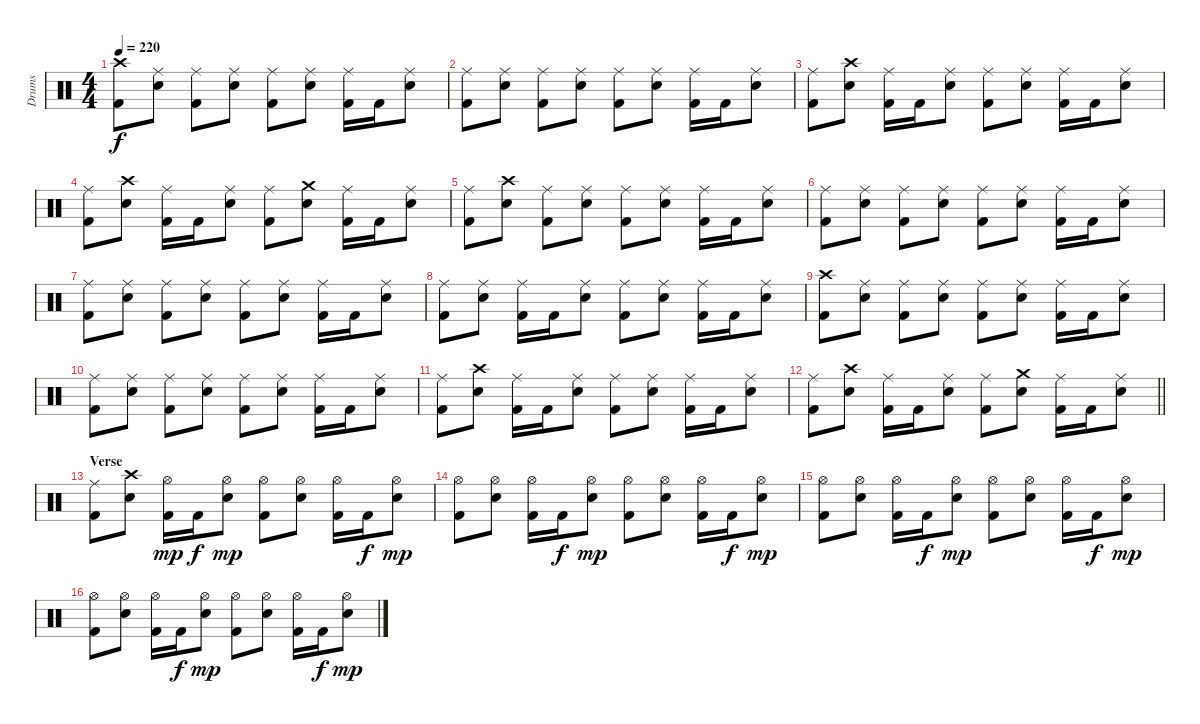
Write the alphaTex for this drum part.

\track ("Drums" "Drums") {instrument percussion}
\staff {score}
\articulation defaults
\ts (4 4)
\tempo 220
\clef neutral
\ks c
("Crash high (hit)" "Kick (hit) 2").8{dy f} ("Ride (middle)" "Snare (hit) 2").8 ("Ride (middle)" "Kick (hit) 2").8 ("Ride (middle)" "Snare (hit) 2").8 ("Ride (middle)" "Kick (hit) 2").8 ("Ride (middle)" "Snare (hit) 2").8 ("Ride (middle)" "Kick (hit) 2").16 "Kick (hit) 2".16 ("Ride (middle)" "Snare (hit) 2").8 |
("Ride (middle)" "Kick (hit) 2").8 ("Ride (middle)" "Snare (hit) 2").8 ("Ride (middle)" "Kick (hit) 2").8 ("Ride (middle)" "Snare (hit) 2").8 ("Ride (middle)" "Kick (hit) 2").8 ("Ride (middle)" "Snare (hit) 2").8 ("Ride (middle)" "Kick (hit) 2").16 "Kick (hit) 2".16 ("Ride (middle)" "Snare (hit) 2").8 |
("Ride (middle)" "Kick (hit) 2").8 ("Crash high (hit)" "Snare (hit) 2").8 ("Ride (middle)" "Kick (hit) 2").16 "Kick (hit) 2".16 ("Ride (middle)" "Snare (hit) 2").8 ("Ride (middle)" "Kick (hit) 2").8 ("Ride (middle)" "Snare (hit) 2").8 ("Ride (middle)" "Kick (hit) 2").16 "Kick (hit) 2".16 ("Ride (middle)" "Snare (hit) 2").8 |
("Ride (middle)" "Kick (hit) 2").8 ("Crash high (hit)" "Snare (hit) 2").8 ("Ride (middle)" "Kick (hit) 2").16 "Kick (hit) 2".16 ("Ride (middle)" "Snare (hit) 2").8 ("Ride (middle)" "Kick (hit) 2").8 ("Crash medium (hit)" "Snare (hit) 2").8 ("Ride (middle)" "Kick (hit) 2").16 "Kick (hit) 2".16 ("Ride (middle)" "Snare (hit) 2").8 |
("Ride (middle)" "Kick (hit) 2").8 ("Crash high (hit)" "Snare (hit) 2").8 ("Ride (middle)" "Kick (hit) 2").8 ("Ride (middle)" "Snare (hit) 2").8 ("Ride (middle)" "Kick (hit) 2").8 ("Ride (middle)" "Snare (hit) 2").8 ("Ride (middle)" "Kick (hit) 2").16 "Kick (hit) 2".16 ("Ride (middle)" "Snare (hit) 2").8 |
("Ride (middle)" "Kick (hit) 2").8 ("Ride (middle)" "Snare (hit) 2").8 ("Ride (middle)" "Kick (hit) 2").8 ("Ride (middle)" "Snare (hit) 2").8 ("Ride (middle)" "Kick (hit) 2").8 ("Ride (middle)" "Snare (hit) 2").8 ("Ride (middle)" "Kick (hit) 2").16 "Kick (hit) 2".16 ("Ride (middle)" "Snare (hit) 2").8 |
("Ride (middle)" "Kick (hit) 2").8 ("Ride (middle)" "Snare (hit) 2").8 ("Ride (middle)" "Kick (hit) 2").8 ("Ride (middle)" "Snare (hit) 2").8 ("Ride (middle)" "Kick (hit) 2").8 ("Ride (middle)" "Snare (hit) 2").8 ("Ride (middle)" "Kick (hit) 2").16 "Kick (hit) 2".16 ("Ride (middle)" "Snare (hit) 2").8 |
("Ride (middle)" "Kick (hit) 2").8 ("Ride (middle)" "Snare (hit) 2").8 ("Ride (middle)" "Kick (hit) 2").16 "Kick (hit) 2".16 ("Ride (middle)" "Snare (hit) 2").8 ("Ride (middle)" "Kick (hit) 2").8 ("Ride (middle)" "Snare (hit) 2").8 ("Ride (middle)" "Kick (hit) 2").16 "Kick (hit) 2".16 ("Ride (middle)" "Snare (hit) 2").8 |
("Crash high (hit)" "Kick (hit) 2").8 ("Ride (middle)" "Snare (hit) 2").8 ("Ride (middle)" "Kick (hit) 2").8 ("Ride (middle)" "Snare (hit) 2").8 ("Ride (middle)" "Kick (hit) 2").8 ("Ride (middle)" "Snare (hit) 2").8 ("Ride (middle)" "Kick (hit) 2").16 "Kick (hit) 2".16 ("Ride (middle)" "Snare (hit) 2").8 |
("Ride (middle)" "Kick (hit) 2").8 ("Ride (middle)" "Snare (hit) 2").8 ("Ride (middle)" "Kick (hit) 2").8 ("Ride (middle)" "Snare (hit) 2").8 ("Ride (middle)" "Kick (hit) 2").8 ("Ride (middle)" "Snare (hit) 2").8 ("Ride (middle)" "Kick (hit) 2").16 "Kick (hit) 2".16 ("Ride (middle)" "Snare (hit) 2").8 |
("Ride (middle)" "Kick (hit) 2").8 ("Crash high (hit)" "Snare (hit) 2").8 ("Ride (middle)" "Kick (hit) 2").16 "Kick (hit) 2".16 ("Ride (middle)" "Snare (hit) 2").8 ("Ride (middle)" "Kick (hit) 2").8 ("Ride (middle)" "Snare (hit) 2").8 ("Ride (middle)" "Kick (hit) 2").16 "Kick (hit) 2".16 ("Ride (middle)" "Snare (hit) 2").8 |
\barLineRight lightlight
("Ride (middle)" "Kick (hit) 2").8 ("Crash high (hit)" "Snare (hit) 2").8 ("Ride (middle)" "Kick (hit) 2").16 "Kick (hit) 2".16 ("Ride (middle)" "Snare (hit) 2").8 ("Ride (middle)" "Kick (hit) 2").8 ("Crash medium (hit)" "Snare (hit) 2").8 ("Ride (middle)" "Kick (hit) 2").16 "Kick (hit) 2".16 ("Ride (middle)" "Snare (hit) 2").8 |
\section ("" "Verse")
("Ride (middle)" "Kick (hit) 2").8 ("Crash high (hit)" "Snare (hit) 2").8 ("Hi-Hat (open)" "Kick (hit) 2").16{dy mp} "Kick (hit) 2".16{dy f} ("Hi-Hat (open)" "Snare (hit) 2").8{dy mp} ("Hi-Hat (open)" "Kick (hit) 2").8 ("Hi-Hat (open)" "Snare (hit) 2").8 ("Hi-Hat (open)" "Kick (hit) 2").16 "Kick (hit) 2".16{dy f} ("Hi-Hat (open)" "Snare (hit) 2").8{dy mp} |
("Hi-Hat (open)" "Kick (hit) 2").8 ("Hi-Hat (open)" "Snare (hit) 2").8 ("Hi-Hat (open)" "Kick (hit) 2").16 "Kick (hit) 2".16{dy f} ("Hi-Hat (open)" "Snare (hit) 2").8{dy mp} ("Hi-Hat (open)" "Kick (hit) 2").8 ("Hi-Hat (open)" "Snare (hit) 2").8 ("Hi-Hat (open)" "Kick (hit) 2").16 "Kick (hit) 2".16{dy f} ("Hi-Hat (open)" "Snare (hit) 2").8{dy mp} |
("Hi-Hat (open)" "Kick (hit) 2").8 ("Hi-Hat (open)" "Snare (hit) 2").8 ("Hi-Hat (open)" "Kick (hit) 2").16 "Kick (hit) 2".16{dy f} ("Hi-Hat (open)" "Snare (hit) 2").8{dy mp} ("Hi-Hat (open)" "Kick (hit) 2").8 ("Hi-Hat (open)" "Snare (hit) 2").8 ("Hi-Hat (open)" "Kick (hit) 2").16 "Kick (hit) 2".16{dy f} ("Hi-Hat (open)" "Snare (hit) 2").8{dy mp} |
("Hi-Hat (open)" "Kick (hit) 2").8 ("Hi-Hat (open)" "Snare (hit) 2").8 ("Hi-Hat (open)" "Kick (hit) 2").16 "Kick (hit) 2".16{dy f} ("Hi-Hat (open)" "Snare (hit) 2").8{dy mp} ("Hi-Hat (open)" "Kick (hit) 2").8 ("Hi-Hat (open)" "Snare (hit) 2").8 ("Hi-Hat (open)" "Kick (hit) 2").16 "Kick (hit) 2".16{dy f} ("Hi-Hat (open)" "Snare (hit) 2").8{dy mp}
